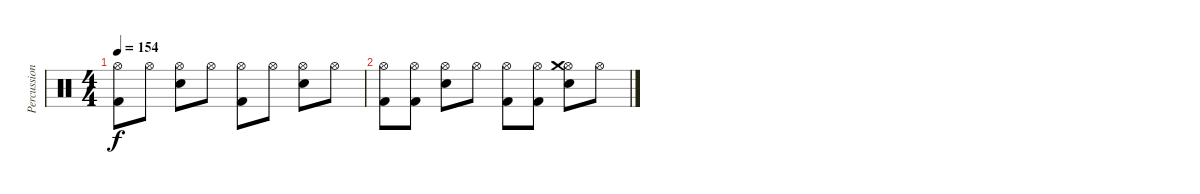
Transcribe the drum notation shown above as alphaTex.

\track ("Percussioni" "Percussion") {instrument percussion}
\staff {score}
\articulation defaults
\ts (4 4)
\tempo 154
\clef neutral
\ks c
("Hi-Hat (open)" "Kick (hit) 2").8{dy f} "Hi-Hat (open)".8 ("Hi-Hat (open)" "Electric Snare (hit)").8 "Hi-Hat (open)".8 ("Hi-Hat (open)" "Kick (hit) 2").8 "Hi-Hat (open)".8 ("Hi-Hat (open)" "Electric Snare (hit)").8 "Hi-Hat (open)".8 |
("Hi-Hat (open)" "Kick (hit) 2").8 ("Hi-Hat (open)" "Kick (hit) 2").8 ("Hi-Hat (open)" "Electric Snare (hit)").8 "Hi-Hat (open)".8 ("Hi-Hat (open)" "Kick (hit) 2").8 ("Hi-Hat (open)" "Kick (hit) 2").8 ("Hi-Hat (open)" "Electric Snare (hit)" "Crash medium (hit)").8 "Hi-Hat (open)".8
